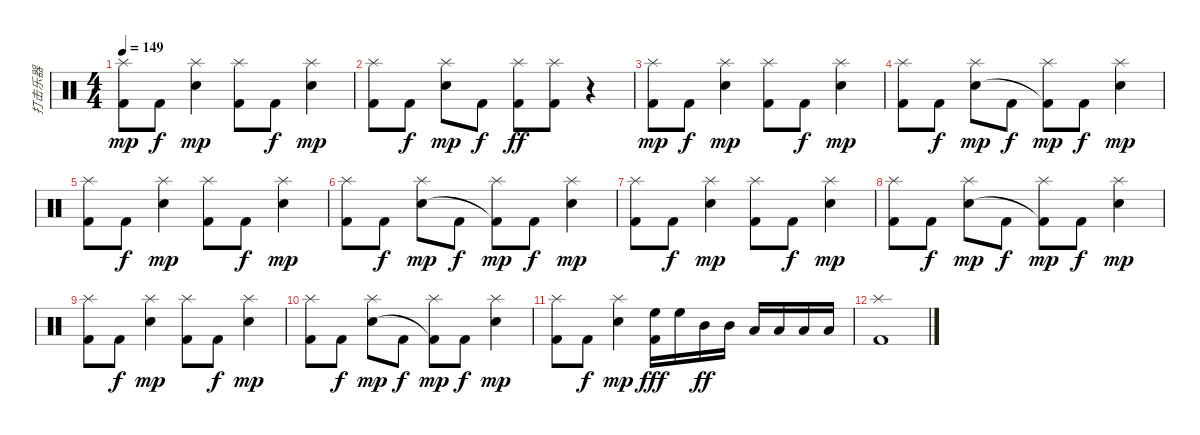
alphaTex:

\track ("打击乐器" "打击乐器") {instrument percussion}
\staff {score}
\articulation defaults
\ts (4 4)
\tempo 149
\clef neutral
\ks c
("Splash (hit)" "Kick (hit) 2").8{dy mp} "Kick (hit) 2".8{dy f} ("Splash (hit)" "Electric Snare (hit)").4{dy mp} ("Splash (hit)" "Kick (hit) 2").8 "Kick (hit) 2".8{dy f} ("Splash (hit)" "Electric Snare (hit)").4{dy mp} |
("Splash (hit)" "Kick (hit) 2").8 "Kick (hit) 2".8{dy f} ("Splash (hit)" "Electric Snare (hit)").8{dy mp} "Kick (hit) 2".8{dy f} ("Splash (hit)" "Kick (hit) 2").8{dy ff} ("Splash (hit)" "Kick (hit) 2").8 r.4 |
("Splash (hit)" "Kick (hit) 2").8{dy mp} "Kick (hit) 2".8{dy f} ("Splash (hit)" "Electric Snare (hit)").4{dy mp} ("Splash (hit)" "Kick (hit) 2").8 "Kick (hit) 2".8{dy f} ("Splash (hit)" "Electric Snare (hit)").4{dy mp} |
("Splash (hit)" "Kick (hit) 2").8 "Kick (hit) 2".8{dy f} ("Splash (hit)" "Electric Snare (hit)").8{dy mp} "Kick (hit) 2".8{dy f} ("Splash (hit)" "Kick (hit) 2"{t}).8{dy mp} "Kick (hit) 2".8{dy f} ("Splash (hit)" "Electric Snare (hit)").4{dy mp} |
("Splash (hit)" "Kick (hit) 2").8 "Kick (hit) 2".8{dy f} ("Splash (hit)" "Electric Snare (hit)").4{dy mp} ("Splash (hit)" "Kick (hit) 2").8 "Kick (hit) 2".8{dy f} ("Splash (hit)" "Electric Snare (hit)").4{dy mp} |
("Splash (hit)" "Kick (hit) 2").8 "Kick (hit) 2".8{dy f} ("Splash (hit)" "Electric Snare (hit)").8{dy mp} "Kick (hit) 2".8{dy f} ("Splash (hit)" "Kick (hit) 2"{t}).8{dy mp} "Kick (hit) 2".8{dy f} ("Splash (hit)" "Electric Snare (hit)").4{dy mp} |
("Splash (hit)" "Kick (hit) 2").8 "Kick (hit) 2".8{dy f} ("Splash (hit)" "Electric Snare (hit)").4{dy mp} ("Splash (hit)" "Kick (hit) 2").8 "Kick (hit) 2".8{dy f} ("Splash (hit)" "Electric Snare (hit)").4{dy mp} |
("Splash (hit)" "Kick (hit) 2").8 "Kick (hit) 2".8{dy f} ("Splash (hit)" "Electric Snare (hit)").8{dy mp} "Kick (hit) 2".8{dy f} ("Splash (hit)" "Kick (hit) 2"{t}).8{dy mp} "Kick (hit) 2".8{dy f} ("Splash (hit)" "Electric Snare (hit)").4{dy mp} |
("Splash (hit)" "Kick (hit) 2").8 "Kick (hit) 2".8{dy f} ("Splash (hit)" "Electric Snare (hit)").4{dy mp} ("Splash (hit)" "Kick (hit) 2").8 "Kick (hit) 2".8{dy f} ("Splash (hit)" "Electric Snare (hit)").4{dy mp} |
("Splash (hit)" "Kick (hit) 2").8 "Kick (hit) 2".8{dy f} ("Splash (hit)" "Electric Snare (hit)").8{dy mp} "Kick (hit) 2".8{dy f} ("Splash (hit)" "Kick (hit) 2"{t}).8{dy mp} "Kick (hit) 2".8{dy f} ("Splash (hit)" "Electric Snare (hit)").4{dy mp} |
("Splash (hit)" "Kick (hit) 2").8 "Kick (hit) 2".8{dy f} ("Splash (hit)" "Electric Snare (hit)").4{dy mp} ("High Floor Tom (hit)" "Kick (hit) 2").16{dy fff} "High Floor Tom (hit)".16 "Mid Tom (hit)".16{dy ff} "Mid Tom (hit)".16 "Low Tom (hit)".16 "Low Tom (hit)".16 "Low Floor Tom (hit)".16 "Low Floor Tom (hit)".16 |
("Splash (hit)" "Kick (hit) 2").1
